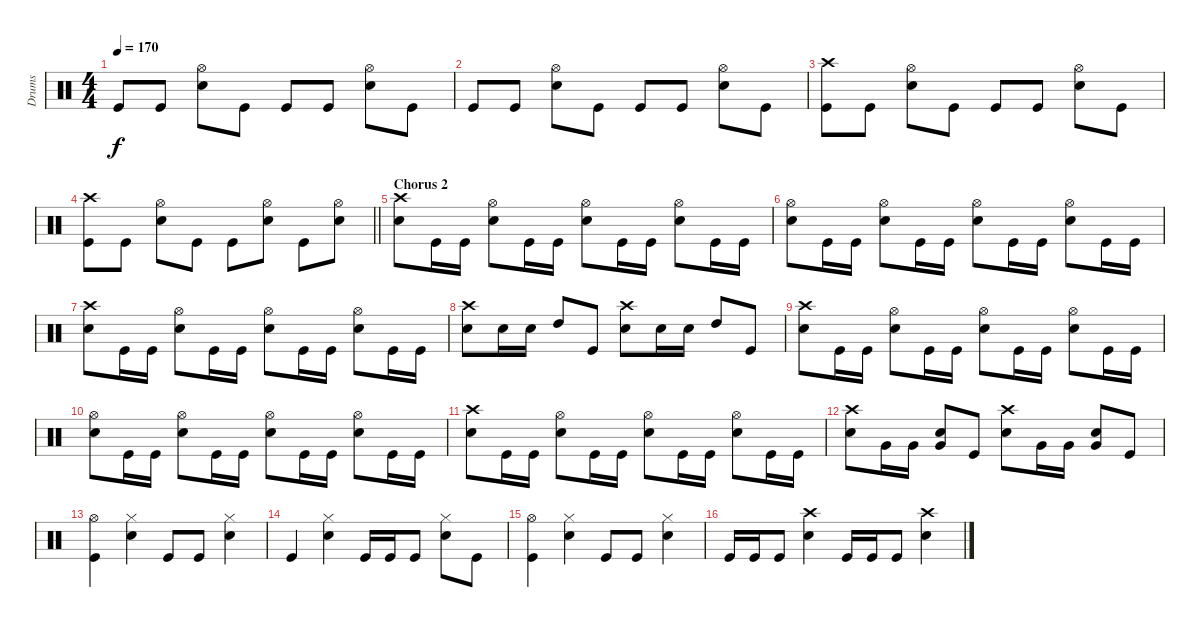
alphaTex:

\track ("Drums" "Drums") {instrument percussion}
\staff {score}
\articulation defaults
\ts (4 4)
\tempo 170
\clef neutral
\ks c "Kick (hit)".8{dy f} "Kick (hit)".8
("Hi-Hat (open)" "Snare (hit) 2").8 "Kick (hit)".8 "Kick (hit)".8 "Kick (hit)".8 ("Hi-Hat (open)" "Snare (hit) 2").8 "Kick (hit)".8 |
"Kick (hit)".8 "Kick (hit)".8 ("Hi-Hat (open)" "Snare (hit) 2").8 "Kick (hit)".8 "Kick (hit)".8 "Kick (hit)".8 ("Hi-Hat (open)" "Snare (hit) 2").8 "Kick (hit)".8 |
("Crash high (hit)" "Kick (hit)").8 "Kick (hit)".8 ("Hi-Hat (open)" "Snare (hit) 2").8 "Kick (hit)".8 "Kick (hit)".8 "Kick (hit)".8 ("Hi-Hat (open)" "Snare (hit) 2").8 "Kick (hit)".8 |
\barLineRight lightlight
("Crash high (hit)" "Kick (hit)").8 "Kick (hit)".8 ("Hi-Hat (open)" "Snare (hit) 2").8 "Kick (hit)".8 "Kick (hit)".8 ("Hi-Hat (open)" "Snare (hit) 2").8 "Kick (hit)".8 ("Hi-Hat (open)" "Snare (hit) 2").8 |
\section ("" "Chorus 2")
("Crash high (hit)" "Snare (hit) 2").8 "Kick (hit)".16 "Kick (hit)".16 ("Hi-Hat (open)" "Snare (hit) 2").8 "Kick (hit)".16 "Kick (hit)".16 ("Hi-Hat (open)" "Snare (hit) 2").8 "Kick (hit)".16 "Kick (hit)".16 ("Hi-Hat (open)" "Snare (hit) 2").8 "Kick (hit)".16 "Kick (hit)".16 |
("Hi-Hat (open)" "Snare (hit) 2").8 "Kick (hit)".16 "Kick (hit)".16 ("Hi-Hat (open)" "Snare (hit) 2").8 "Kick (hit)".16 "Kick (hit)".16 ("Hi-Hat (open)" "Snare (hit) 2").8 "Kick (hit)".16 "Kick (hit)".16 ("Hi-Hat (open)" "Snare (hit) 2").8 "Kick (hit)".16 "Kick (hit)".16 |
("Crash high (hit)" "Snare (hit) 2").8 "Kick (hit)".16 "Kick (hit)".16 ("Hi-Hat (open)" "Snare (hit) 2").8 "Kick (hit)".16 "Kick (hit)".16 ("Hi-Hat (open)" "Snare (hit) 2").8 "Kick (hit)".16 "Kick (hit)".16 ("Hi-Hat (open)" "Snare (hit) 2").8 "Kick (hit)".16 "Kick (hit)".16 |
("Crash high (hit)" "Snare (hit) 2").8 "Snare (hit) 2".16 "Snare (hit) 2".16 "High Tom (hit)".8 "Kick (hit)".8 ("Crash high (hit)" "Snare (hit) 2").8 "Snare (hit) 2".16 "Snare (hit) 2".16 "High Tom (hit)".8 "Kick (hit)".8 |
("Crash high (hit)" "Snare (hit) 2").8 "Kick (hit)".16 "Kick (hit)".16 ("Hi-Hat (open)" "Snare (hit) 2").8 "Kick (hit)".16 "Kick (hit)".16 ("Hi-Hat (open)" "Snare (hit) 2").8 "Kick (hit)".16 "Kick (hit)".16 ("Hi-Hat (open)" "Snare (hit) 2").8 "Kick (hit)".16 "Kick (hit)".16 |
("Hi-Hat (open)" "Snare (hit) 2").8 "Kick (hit)".16 "Kick (hit)".16 ("Hi-Hat (open)" "Snare (hit) 2").8 "Kick (hit)".16 "Kick (hit)".16 ("Hi-Hat (open)" "Snare (hit) 2").8 "Kick (hit)".16 "Kick (hit)".16 ("Hi-Hat (open)" "Snare (hit) 2").8 "Kick (hit)".16 "Kick (hit)".16 |
("Crash high (hit)" "Snare (hit) 2").8 "Kick (hit)".16 "Kick (hit)".16 ("Hi-Hat (open)" "Snare (hit) 2").8 "Kick (hit)".16 "Kick (hit)".16 ("Hi-Hat (open)" "Snare (hit) 2").8 "Kick (hit)".16 "Kick (hit)".16 ("Hi-Hat (open)" "Snare (hit) 2").8 "Kick (hit)".16 "Kick (hit)".16 |
("Crash high (hit)" "Snare (hit) 2").8 "Very Low Tom (hit)".16 "Very Low Tom (hit)".16 ("Very Low Tom (hit)" "Snare (hit) 2").8 "Kick (hit)".8 ("Crash high (hit)" "Snare (hit) 2").8 "Very Low Tom (hit)".16 "Very Low Tom (hit)".16 ("Very Low Tom (hit)" "Snare (hit) 2").8 "Kick (hit)".8 |
("Hi-Hat (open)" "Kick (hit)").4 ("Hi-Hat (closed)" "Snare (hit) 2").4 "Kick (hit)".8 "Kick (hit)".8 ("Hi-Hat (closed)" "Snare (hit) 2").4 |
"Kick (hit)".4 ("Hi-Hat (closed)" "Snare (hit) 2").4 "Kick (hit)".16 "Kick (hit)".16 "Kick (hit)".8 ("Hi-Hat (closed)" "Snare (hit) 2").8 "Kick (hit)".8 |
("Hi-Hat (open)" "Kick (hit)").4 ("Hi-Hat (closed)" "Snare (hit) 2").4 "Kick (hit)".8 "Kick (hit)".8 ("Hi-Hat (closed)" "Snare (hit) 2").4 |
"Kick (hit)".16 "Kick (hit)".16 "Kick (hit)".8 ("Crash high (hit)" "Snare (hit) 2").4 "Kick (hit)".16 "Kick (hit)".16 "Kick (hit)".8 ("Crash high (hit)" "Snare (hit) 2").4
